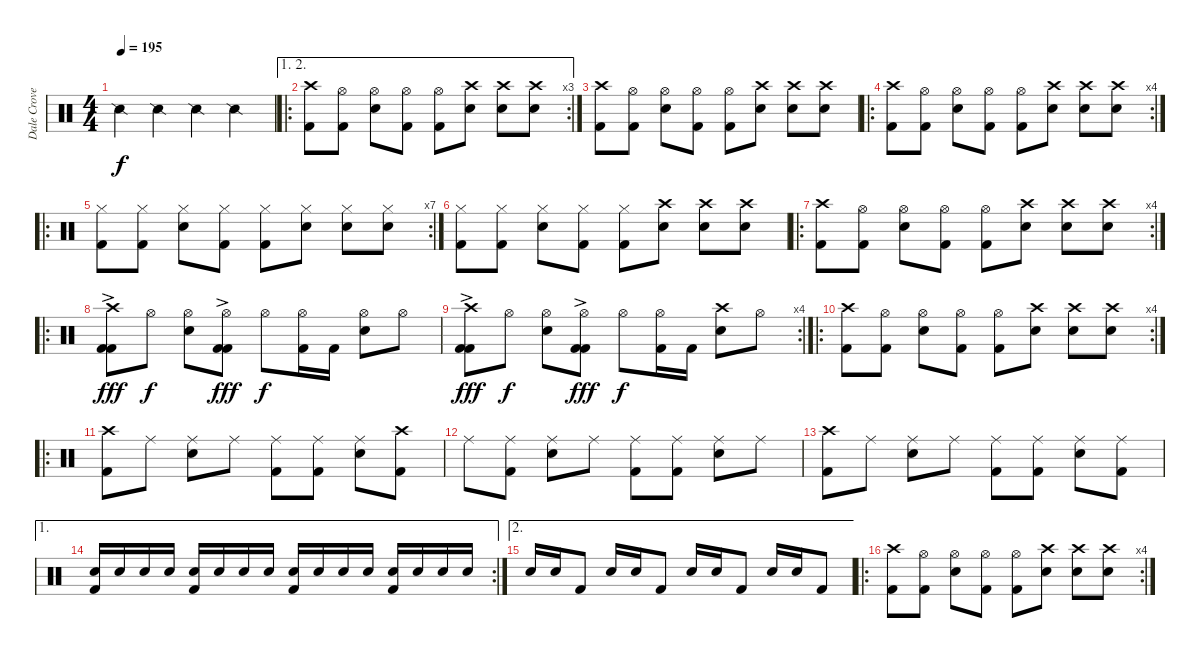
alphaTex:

\track ("Dale Crover" "Dale Crove") {instrument percussion}
\staff {score}
\articulation defaults
\ts (4 4)
\tempo 195
\clef neutral
\ks c "Snare (side stick) 2".4{dy f} "Snare (side stick) 2".4 "Snare (side stick) 2".4 "Snare (side stick) 2".4
|
\ae (1 2)
\ro
\rc 3
("Crash high (hit)" "Kick (hit) 2").8 ("Hi-Hat (open)" "Kick (hit) 2").8 ("Hi-Hat (open)" "Electric Snare (hit)").8 ("Hi-Hat (open)" "Kick (hit) 2").8 ("Hi-Hat (open)" "Kick (hit) 2").8 ("Crash high (hit)" "Electric Snare (hit)").8 ("Crash high (hit)" "Electric Snare (hit)").8 ("Crash high (hit)" "Electric Snare (hit)").8 |
("Crash high (hit)" "Kick (hit) 2").8 ("Hi-Hat (open)" "Kick (hit) 2").8 ("Hi-Hat (open)" "Electric Snare (hit)").8 ("Hi-Hat (open)" "Kick (hit) 2").8 ("Hi-Hat (open)" "Kick (hit) 2").8 ("Crash high (hit)" "Electric Snare (hit)").8 ("Crash high (hit)" "Electric Snare (hit)").8 ("Crash high (hit)" "Electric Snare (hit)").8 |
\ro
\rc 4
("Crash high (hit)" "Kick (hit) 2").8 ("Hi-Hat (open)" "Kick (hit) 2").8 ("Hi-Hat (open)" "Electric Snare (hit)").8 ("Hi-Hat (open)" "Kick (hit) 2").8 ("Hi-Hat (open)" "Kick (hit) 2").8 ("Crash high (hit)" "Electric Snare (hit)").8 ("Crash high (hit)" "Electric Snare (hit)").8 ("Crash high (hit)" "Electric Snare (hit)").8 |
\ro
\rc 7
("Hi-Hat (closed)" "Kick (hit) 2").8 ("Hi-Hat (closed)" "Kick (hit) 2").8 ("Hi-Hat (closed)" "Electric Snare (hit)").8 ("Hi-Hat (closed)" "Kick (hit) 2").8 ("Hi-Hat (closed)" "Kick (hit) 2").8 ("Hi-Hat (closed)" "Electric Snare (hit)").8 ("Hi-Hat (closed)" "Electric Snare (hit)").8 ("Hi-Hat (closed)" "Electric Snare (hit)").8 |
("Hi-Hat (closed)" "Kick (hit) 2").8 ("Hi-Hat (closed)" "Kick (hit) 2").8 ("Hi-Hat (closed)" "Electric Snare (hit)").8 ("Hi-Hat (closed)" "Kick (hit) 2").8 ("Hi-Hat (closed)" "Kick (hit) 2").8 ("Crash high (hit)" "Electric Snare (hit)").8 ("Crash high (hit)" "Electric Snare (hit)").8 ("Crash high (hit)" "Electric Snare (hit)").8 |
\ro
\rc 4
("Crash high (hit)" "Kick (hit) 2").8 ("Hi-Hat (open)" "Kick (hit) 2").8 ("Hi-Hat (open)" "Electric Snare (hit)").8 ("Hi-Hat (open)" "Kick (hit) 2").8 ("Hi-Hat (open)" "Kick (hit) 2").8 ("Crash high (hit)" "Electric Snare (hit)").8 ("Crash high (hit)" "Electric Snare (hit)").8 ("Crash high (hit)" "Electric Snare (hit)").8 |
\ro
("Crash high (hit)" "Kick (hit) 2" "Kick (hit) 2"{ac}).8{dy fff} "Hi-Hat (open)".8{dy f} ("Hi-Hat (open)" "Electric Snare (hit)").8 ("Hi-Hat (open)" "Kick (hit) 2" "Kick (hit) 2"{ac}).8{dy fff} "Hi-Hat (open)".8{dy f} ("Hi-Hat (open)" "Kick (hit) 2").16 "Kick (hit) 2".16 ("Hi-Hat (open)" "Electric Snare (hit)").8 "Hi-Hat (open)".8 |
\rc 4
("Crash high (hit)" "Kick (hit) 2" "Kick (hit) 2"{ac}).8{dy fff} "Hi-Hat (open)".8{dy f} ("Hi-Hat (open)" "Electric Snare (hit)").8 ("Hi-Hat (open)" "Kick (hit) 2" "Kick (hit) 2"{ac}).8{dy fff} "Hi-Hat (open)".8{dy f} ("Hi-Hat (open)" "Kick (hit) 2").16 "Kick (hit) 2".16 ("Crash high (hit)" "Electric Snare (hit)").8 "Hi-Hat (open)".8 |
\ro
\rc 4
("Crash high (hit)" "Kick (hit) 2").8 ("Hi-Hat (open)" "Kick (hit) 2").8 ("Hi-Hat (open)" "Electric Snare (hit)").8 ("Hi-Hat (open)" "Kick (hit) 2").8 ("Hi-Hat (open)" "Kick (hit) 2").8 ("Crash high (hit)" "Electric Snare (hit)").8 ("Crash high (hit)" "Electric Snare (hit)").8 ("Crash high (hit)" "Electric Snare (hit)").8 |
\ro
("Crash high (hit)" "Kick (hit) 2").8 "Ride (middle)".8 ("Ride (middle)" "Electric Snare (hit)").8 "Ride (middle)".8 ("Ride (middle)" "Kick (hit) 2").8 ("Ride (middle)" "Kick (hit) 2").8 ("Ride (middle)" "Electric Snare (hit)").8 ("Crash high (hit)" "Kick (hit) 2").8 |
"Ride (middle)".8 ("Ride (middle)" "Kick (hit) 2").8 ("Ride (middle)" "Electric Snare (hit)").8 "Ride (middle)".8 ("Ride (middle)" "Kick (hit) 2").8 ("Ride (middle)" "Kick (hit) 2").8 ("Ride (middle)" "Electric Snare (hit)").8 "Ride (middle)".8 |
("Crash high (hit)" "Kick (hit) 2").8 "Ride (middle)".8 ("Ride (middle)" "Electric Snare (hit)").8 "Ride (middle)".8 ("Ride (middle)" "Kick (hit) 2").8 ("Ride (middle)" "Kick (hit) 2").8 ("Ride (middle)" "Electric Snare (hit)").8 ("Ride (middle)" "Kick (hit) 2").8 |
\ae 1
\rc 2
("Electric Snare (hit)" "Kick (hit) 2").16 "Electric Snare (hit)".16 "Electric Snare (hit)".16 "Electric Snare (hit)".16 ("Electric Snare (hit)" "Kick (hit) 2").16 "Electric Snare (hit)".16 "Electric Snare (hit)".16 "Electric Snare (hit)".16 ("Electric Snare (hit)" "Kick (hit) 2").16 "Electric Snare (hit)".16 "Electric Snare (hit)".16 "Electric Snare (hit)".16 ("Electric Snare (hit)" "Kick (hit) 2").16 "Electric Snare (hit)".16 "Electric Snare (hit)".16 "Electric Snare (hit)".16 |
\ae 2 "Electric Snare (hit)".16 "Electric Snare (hit)".16 "Kick (hit) 2".8 "Electric Snare (hit)".16 "Electric Snare (hit)".16 "Kick (hit) 2".8 "Electric Snare (hit)".16 "Electric Snare (hit)".16 "Kick (hit) 2".8 "Electric Snare (hit)".16 "Electric Snare (hit)".16 "Kick (hit) 2".8
|
\ro
\rc 4
("Crash high (hit)" "Kick (hit) 2").8 ("Hi-Hat (open)" "Kick (hit) 2").8 ("Hi-Hat (open)" "Electric Snare (hit)").8 ("Hi-Hat (open)" "Kick (hit) 2").8 ("Hi-Hat (open)" "Kick (hit) 2").8 ("Crash high (hit)" "Electric Snare (hit)").8 ("Crash high (hit)" "Electric Snare (hit)").8 ("Crash high (hit)" "Electric Snare (hit)").8
